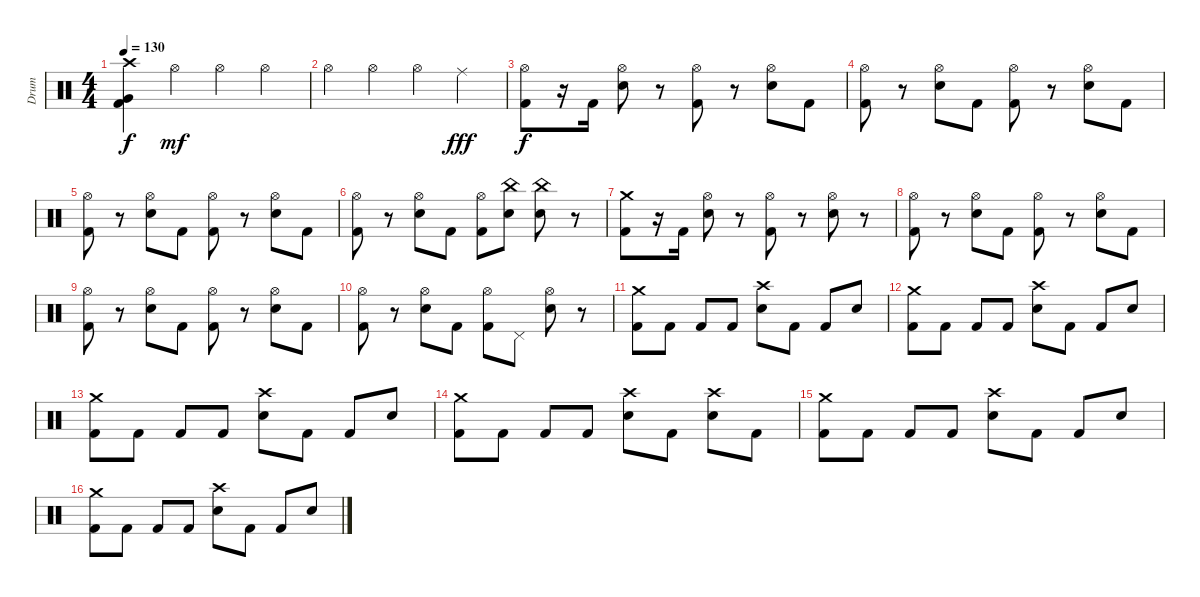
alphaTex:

\track ("Drum" "Drum") {instrument percussion}
\staff {score}
\articulation defaults
\ts (4 4)
\tempo 130
\clef neutral
\ks c
("Crash high (hit)" "Very Low Tom (hit)" "Kick (hit) 2").4{dy f} "Hi-Hat (open)".4{dy mf} "Hi-Hat (open)".4 "Hi-Hat (open)".4 |
"Hi-Hat (open)".4 "Hi-Hat (open)".4 "Hi-Hat (open)".4 "Ride (middle)".4{dy fff} |
("Hi-Hat (open)" "Kick (hit) 2").8{dy f} r.16 "Kick (hit) 2".16 ("Hi-Hat (open)" "Snare (hit) 2").8 r.8 ("Hi-Hat (open)" "Kick (hit) 2").8 r.8 ("Hi-Hat (open)" "Snare (hit) 2").8 "Kick (hit) 2".8 |
("Hi-Hat (open)" "Kick (hit) 2").8 r.8 ("Hi-Hat (open)" "Snare (hit) 2").8 "Kick (hit) 2".8 ("Hi-Hat (open)" "Kick (hit) 2").8 r.8 ("Hi-Hat (open)" "Snare (hit) 2").8 "Kick (hit) 2".8 |
("Hi-Hat (open)" "Kick (hit) 2").8 r.8 ("Hi-Hat (open)" "Snare (hit) 2").8 "Kick (hit) 2".8 ("Hi-Hat (open)" "Kick (hit) 2").8 r.8 ("Hi-Hat (open)" "Snare (hit) 2").8 "Kick (hit) 2".8 |
("Hi-Hat (open)" "Kick (hit) 2").8 r.8 ("Hi-Hat (open)" "Snare (hit) 2").8 "Kick (hit) 2".8 ("Hi-Hat (open)" "Kick (hit) 2").8 ("China (hit)" "Snare (hit) 2").8 ("China (hit)" "Snare (hit) 2").8 r.8 |
("Crash medium (hit)" "Kick (hit) 2").8 r.16 "Kick (hit) 2".16 ("Hi-Hat (open)" "Snare (hit) 2").8 r.8 ("Hi-Hat (open)" "Kick (hit) 2").8 r.8 ("Hi-Hat (open)" "Snare (hit) 2").8 r.8 |
("Hi-Hat (open)" "Kick (hit) 2").8 r.8 ("Hi-Hat (open)" "Snare (hit) 2").8 "Kick (hit) 2".8 ("Hi-Hat (open)" "Kick (hit) 2").8 r.8 ("Hi-Hat (open)" "Snare (hit) 2").8 "Kick (hit) 2".8 |
("Hi-Hat (open)" "Kick (hit) 2").8 r.8 ("Hi-Hat (open)" "Snare (hit) 2").8 "Kick (hit) 2".8 ("Hi-Hat (open)" "Kick (hit) 2").8 r.8 ("Hi-Hat (open)" "Snare (hit) 2").8 "Kick (hit) 2".8 |
("Hi-Hat (open)" "Kick (hit) 2").8 r.8 ("Hi-Hat (open)" "Snare (hit) 2").8 "Kick (hit) 2".8 ("Hi-Hat (open)" "Kick (hit) 2").8 "Pedal Hi-Hat (hit)".8 ("Hi-Hat (open)" "Snare (hit) 2").8 r.8 |
("Crash medium (hit)" "Kick (hit) 2").8 "Kick (hit) 2".8 "Kick (hit) 2".8 "Kick (hit) 2".8 ("Crash high (hit)" "Snare (hit) 2").8 "Kick (hit) 2".8 "Kick (hit) 2".8 "Snare (hit) 2".8 |
("Crash medium (hit)" "Kick (hit) 2").8 "Kick (hit) 2".8 "Kick (hit) 2".8 "Kick (hit) 2".8 ("Crash high (hit)" "Snare (hit) 2").8 "Kick (hit) 2".8 "Kick (hit) 2".8 "Snare (hit) 2".8 |
("Crash medium (hit)" "Kick (hit) 2").8 "Kick (hit) 2".8 "Kick (hit) 2".8 "Kick (hit) 2".8 ("Crash high (hit)" "Snare (hit) 2").8 "Kick (hit) 2".8 "Kick (hit) 2".8 "Snare (hit) 2".8 |
("Crash medium (hit)" "Kick (hit) 2").8 "Kick (hit) 2".8 "Kick (hit) 2".8 "Kick (hit) 2".8 ("Crash high (hit)" "Snare (hit) 2").8 "Kick (hit) 2".8 ("Crash high (hit)" "Snare (hit) 2").8 "Kick (hit) 2".8 |
("Crash medium (hit)" "Kick (hit) 2").8 "Kick (hit) 2".8 "Kick (hit) 2".8 "Kick (hit) 2".8 ("Crash high (hit)" "Snare (hit) 2").8 "Kick (hit) 2".8 "Kick (hit) 2".8 "Snare (hit) 2".8 |
("Crash medium (hit)" "Kick (hit) 2").8 "Kick (hit) 2".8 "Kick (hit) 2".8 "Kick (hit) 2".8 ("Crash high (hit)" "Snare (hit) 2").8 "Kick (hit) 2".8 "Kick (hit) 2".8 "Snare (hit) 2".8
